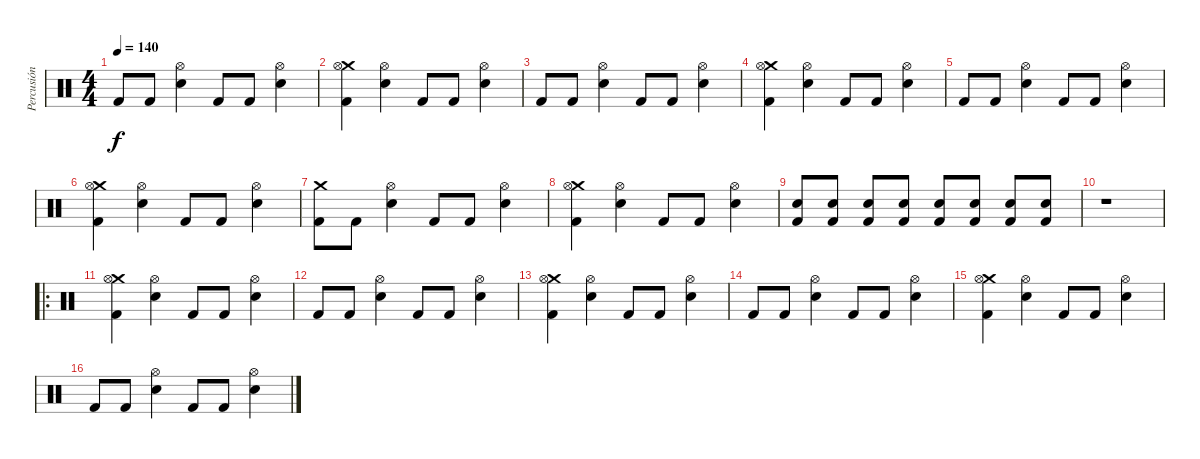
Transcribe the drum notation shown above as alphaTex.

\track ("Percusión" "Percusión") {instrument percussion}
\staff {score}
\articulation defaults
\ts (4 4)
\tempo 140
\clef neutral
\ks c "Kick (hit) 2".8{dy f} "Kick (hit) 2".8
("Hi-Hat (open)" "Snare (hit) 2").4 "Kick (hit) 2".8 "Kick (hit) 2".8 ("Hi-Hat (open)" "Snare (hit) 2").4 |
("Crash medium (hit)" "Hi-Hat (open)" "Kick (hit) 2").4 ("Hi-Hat (open)" "Snare (hit) 2").4 "Kick (hit) 2".8 "Kick (hit) 2".8 ("Hi-Hat (open)" "Snare (hit) 2").4 |
"Kick (hit) 2".8 "Kick (hit) 2".8 ("Hi-Hat (open)" "Snare (hit) 2").4 "Kick (hit) 2".8 "Kick (hit) 2".8 ("Hi-Hat (open)" "Snare (hit) 2").4 |
("Crash medium (hit)" "Hi-Hat (open)" "Kick (hit) 2").4 ("Hi-Hat (open)" "Snare (hit) 2").4 "Kick (hit) 2".8 "Kick (hit) 2".8 ("Hi-Hat (open)" "Snare (hit) 2").4 |
"Kick (hit) 2".8 "Kick (hit) 2".8 ("Hi-Hat (open)" "Snare (hit) 2").4 "Kick (hit) 2".8 "Kick (hit) 2".8 ("Hi-Hat (open)" "Snare (hit) 2").4 |
("Crash medium (hit)" "Hi-Hat (open)" "Kick (hit) 2").4 ("Hi-Hat (open)" "Snare (hit) 2").4 "Kick (hit) 2".8 "Kick (hit) 2".8 ("Hi-Hat (open)" "Snare (hit) 2").4 |
("Crash medium (hit)" "Kick (hit) 2").8 "Kick (hit) 2".8 ("Hi-Hat (open)" "Snare (hit) 2").4 "Kick (hit) 2".8 "Kick (hit) 2".8 ("Hi-Hat (open)" "Snare (hit) 2").4 |
("Crash medium (hit)" "Hi-Hat (open)" "Kick (hit) 2").4 ("Hi-Hat (open)" "Snare (hit) 2").4 "Kick (hit) 2".8 "Kick (hit) 2".8 ("Hi-Hat (open)" "Snare (hit) 2").4 |
("Snare (hit) 2" "Kick (hit) 2").8 ("Snare (hit) 2" "Kick (hit) 2").8 ("Snare (hit) 2" "Kick (hit) 2").8 ("Snare (hit) 2" "Kick (hit) 2").8 ("Snare (hit) 2" "Kick (hit) 2").8 ("Snare (hit) 2" "Kick (hit) 2").8 ("Snare (hit) 2" "Kick (hit) 2").8 ("Snare (hit) 2" "Kick (hit) 2").8 |
r.1 |
\ro
("Crash medium (hit)" "Hi-Hat (open)" "Kick (hit) 2").4 ("Hi-Hat (open)" "Snare (hit) 2").4 "Kick (hit) 2".8 "Kick (hit) 2".8 ("Hi-Hat (open)" "Snare (hit) 2").4 |
"Kick (hit) 2".8 "Kick (hit) 2".8 ("Hi-Hat (open)" "Snare (hit) 2").4 "Kick (hit) 2".8 "Kick (hit) 2".8 ("Hi-Hat (open)" "Snare (hit) 2").4 |
("Crash medium (hit)" "Hi-Hat (open)" "Kick (hit) 2").4 ("Hi-Hat (open)" "Snare (hit) 2").4 "Kick (hit) 2".8 "Kick (hit) 2".8 ("Hi-Hat (open)" "Snare (hit) 2").4 |
"Kick (hit) 2".8 "Kick (hit) 2".8 ("Hi-Hat (open)" "Snare (hit) 2").4 "Kick (hit) 2".8 "Kick (hit) 2".8 ("Hi-Hat (open)" "Snare (hit) 2").4 |
("Crash medium (hit)" "Hi-Hat (open)" "Kick (hit) 2").4 ("Hi-Hat (open)" "Snare (hit) 2").4 "Kick (hit) 2".8 "Kick (hit) 2".8 ("Hi-Hat (open)" "Snare (hit) 2").4 |
"Kick (hit) 2".8 "Kick (hit) 2".8 ("Hi-Hat (open)" "Snare (hit) 2").4 "Kick (hit) 2".8 "Kick (hit) 2".8 ("Hi-Hat (open)" "Snare (hit) 2").4
